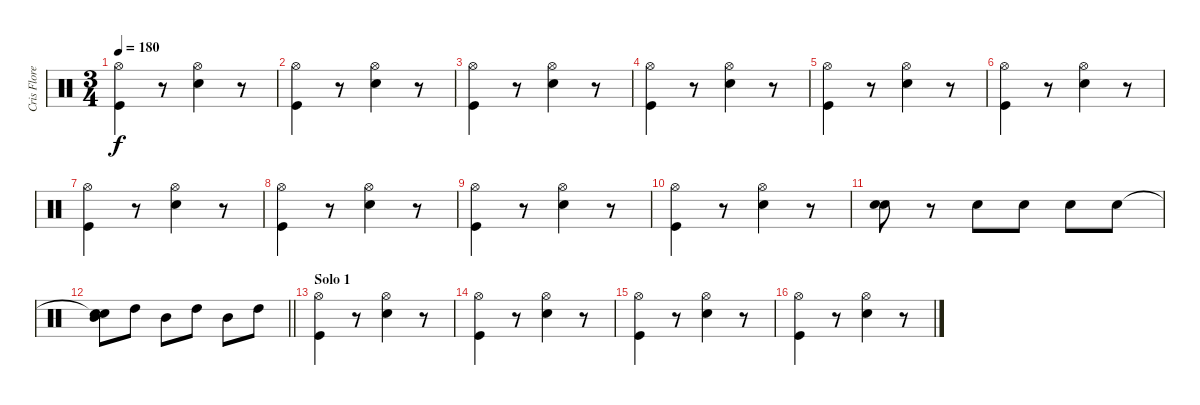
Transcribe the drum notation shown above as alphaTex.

\track ("Cris Flores" "Cris Flore") {instrument percussion}
\staff {score}
\articulation defaults
\ts (3 4)
\tempo 180
\clef neutral
\ks c
("Kick (hit)" "Hi-Hat (open)").4{dy f} r.8 ("Snare (hit) 2" "Hi-Hat (open)").4 r.8 |
("Kick (hit)" "Hi-Hat (open)").4 r.8 ("Snare (hit) 2" "Hi-Hat (open)").4 r.8 |
("Kick (hit)" "Hi-Hat (open)").4 r.8 ("Snare (hit) 2" "Hi-Hat (open)").4 r.8 |
("Kick (hit)" "Hi-Hat (open)").4 r.8 ("Snare (hit) 2" "Hi-Hat (open)").4 r.8 |
("Kick (hit)" "Hi-Hat (open)").4 r.8 ("Snare (hit) 2" "Hi-Hat (open)").4 r.8 |
("Kick (hit)" "Hi-Hat (open)").4 r.8 ("Snare (hit) 2" "Hi-Hat (open)").4 r.8 |
("Kick (hit)" "Hi-Hat (open)").4 r.8 ("Snare (hit) 2" "Hi-Hat (open)").4 r.8 |
("Kick (hit)" "Hi-Hat (open)").4 r.8 ("Snare (hit) 2" "Hi-Hat (open)").4 r.8 |
("Kick (hit)" "Hi-Hat (open)").4 r.8 ("Snare (hit) 2" "Hi-Hat (open)").4 r.8 |
("Kick (hit)" "Hi-Hat (open)").4 r.8 ("Snare (hit) 2" "Hi-Hat (open)").4 r.8 |
("Electric Snare (hit)" "Snare (hit) 2").8 r.8 "Snare (hit) 2".8 "Snare (hit) 2".8 "Snare (hit) 2".8 "Snare (hit) 2".8 |
\barLineRight lightlight
("Snare (hit)"{t} "Mid Tom (hit)" "Snare (hit)").8 "High Tom (hit)".8 "Mid Tom (hit)".8 "High Tom (hit)".8 "Mid Tom (hit)".8 "High Tom (hit)".8 |
\section ("" "Solo 1")
("Kick (hit)" "Hi-Hat (open)").4 r.8 ("Snare (hit) 2" "Hi-Hat (open)").4 r.8 |
("Kick (hit)" "Hi-Hat (open)").4 r.8 ("Snare (hit) 2" "Hi-Hat (open)").4 r.8 |
("Kick (hit)" "Hi-Hat (open)").4 r.8 ("Snare (hit) 2" "Hi-Hat (open)").4 r.8 |
("Kick (hit)" "Hi-Hat (open)").4 r.8 ("Snare (hit) 2" "Hi-Hat (open)").4 r.8
